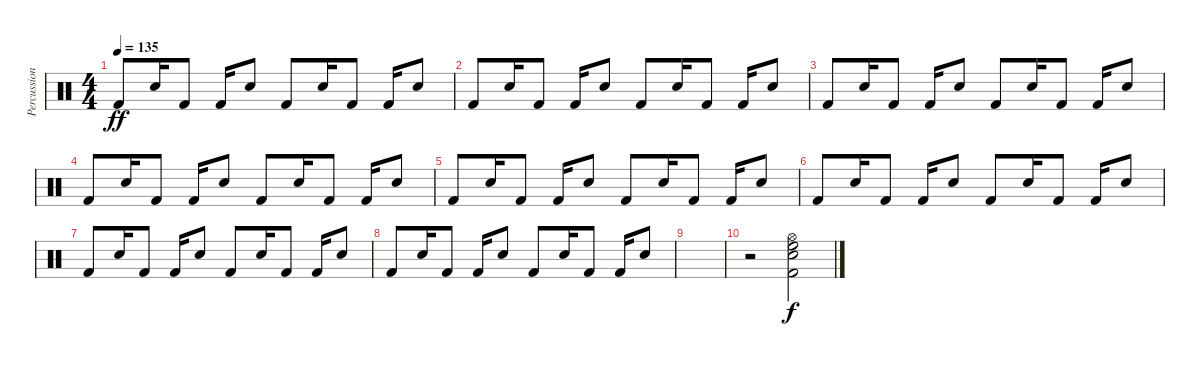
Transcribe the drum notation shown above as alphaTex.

\track ("Percussion" "Percussion") {instrument percussion}
\staff {score}
\articulation defaults
\ts (4 4)
\tempo 135
\clef neutral
\ks c "Kick (hit) 2".8{dy ff} "Electric Snare (hit)".16 "Kick (hit) 2".8 "Kick (hit) 2".16 "Electric Snare (hit)".8 "Kick (hit) 2".8 "Electric Snare (hit)".16 "Kick (hit) 2".8 "Kick (hit) 2".16 "Electric Snare (hit)".8
|
"Kick (hit) 2".8 "Electric Snare (hit)".16 "Kick (hit) 2".8 "Kick (hit) 2".16 "Electric Snare (hit)".8 "Kick (hit) 2".8 "Electric Snare (hit)".16 "Kick (hit) 2".8 "Kick (hit) 2".16 "Electric Snare (hit)".8 |
"Kick (hit) 2".8 "Electric Snare (hit)".16 "Kick (hit) 2".8 "Kick (hit) 2".16 "Electric Snare (hit)".8 "Kick (hit) 2".8 "Electric Snare (hit)".16 "Kick (hit) 2".8 "Kick (hit) 2".16 "Electric Snare (hit)".8 |
"Kick (hit) 2".8 "Electric Snare (hit)".16 "Kick (hit) 2".8 "Kick (hit) 2".16 "Electric Snare (hit)".8 "Kick (hit) 2".8 "Electric Snare (hit)".16 "Kick (hit) 2".8 "Kick (hit) 2".16 "Electric Snare (hit)".8 |
"Kick (hit) 2".8 "Electric Snare (hit)".16 "Kick (hit) 2".8 "Kick (hit) 2".16 "Electric Snare (hit)".8 "Kick (hit) 2".8 "Electric Snare (hit)".16 "Kick (hit) 2".8 "Kick (hit) 2".16 "Electric Snare (hit)".8 |
"Kick (hit) 2".8 "Electric Snare (hit)".16 "Kick (hit) 2".8 "Kick (hit) 2".16 "Electric Snare (hit)".8 "Kick (hit) 2".8 "Electric Snare (hit)".16 "Kick (hit) 2".8 "Kick (hit) 2".16 "Electric Snare (hit)".8 |
"Kick (hit) 2".8 "Electric Snare (hit)".16 "Kick (hit) 2".8 "Kick (hit) 2".16 "Electric Snare (hit)".8 "Kick (hit) 2".8 "Electric Snare (hit)".16 "Kick (hit) 2".8 "Kick (hit) 2".16 "Electric Snare (hit)".8 |
"Kick (hit) 2".8 "Electric Snare (hit)".16 "Kick (hit) 2".8 "Kick (hit) 2".16 "Electric Snare (hit)".8 "Kick (hit) 2".8 "Electric Snare (hit)".16 "Kick (hit) 2".8 "Kick (hit) 2".16 "Electric Snare (hit)".8 |
|
r.2 ("Hi-Hat (open)" "Electric Snare (hit)" "Kick (hit) 2" "High Floor Tom (hit)").2{dy f}
